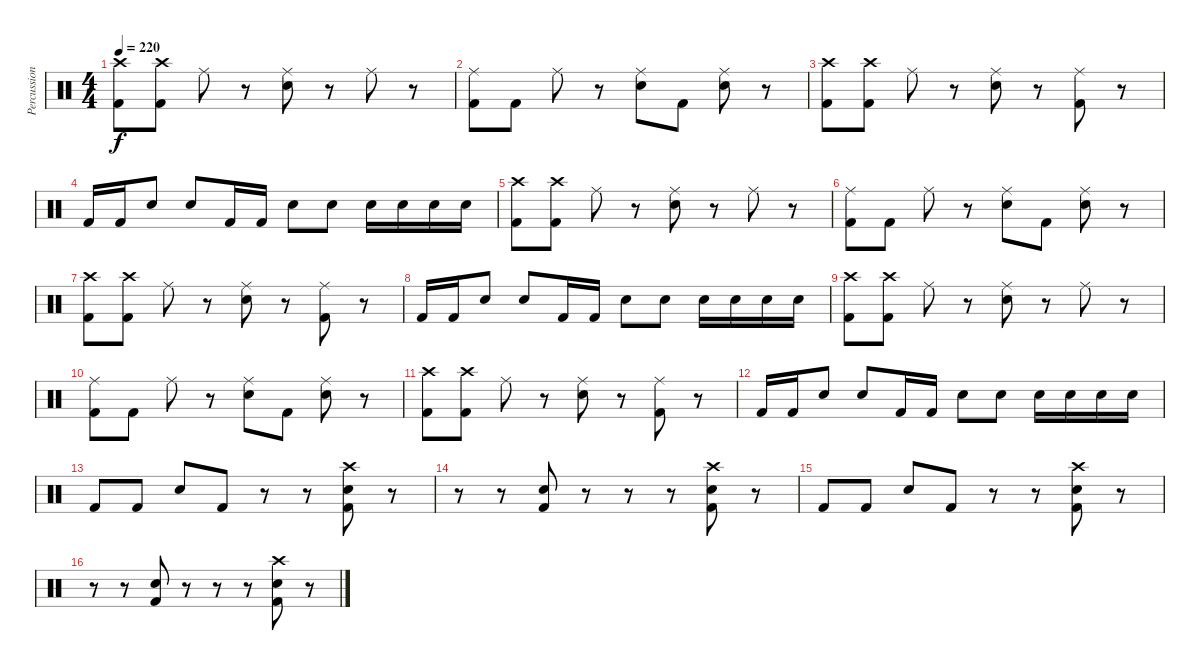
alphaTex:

\track ("Percussion" "Percussion") {instrument percussion}
\staff {score}
\articulation defaults
\ts (4 4)
\tempo 220
\clef neutral
\ks c
("Crash high (hit)" "Kick (hit) 2").8{dy f} ("Crash high (hit)" "Kick (hit) 2").8 "Ride (middle)".8 r.8 ("Ride (middle)" "Electric Snare (hit)").8 r.8 "Ride (middle)".8 r.8 |
("Ride (middle)" "Kick (hit) 2").8 "Kick (hit) 2".8 "Ride (middle)".8 r.8 ("Ride (middle)" "Electric Snare (hit)").8 "Kick (hit) 2".8 ("Ride (middle)" "Electric Snare (hit)").8 r.8 |
("Crash high (hit)" "Kick (hit) 2").8 ("Crash high (hit)" "Kick (hit) 2").8 "Ride (middle)".8 r.8 ("Ride (middle)" "Electric Snare (hit)").8 r.8 ("Ride (middle)" "Kick (hit) 2").8 r.8 |
"Kick (hit) 2".16 "Kick (hit) 2".16 "Electric Snare (hit)".8 "Electric Snare (hit)".8 "Kick (hit) 2".16 "Kick (hit) 2".16 "Electric Snare (hit)".8 "Electric Snare (hit)".8 "Electric Snare (hit)".16 "Electric Snare (hit)".16 "Electric Snare (hit)".16 "Electric Snare (hit)".16 |
("Crash high (hit)" "Kick (hit) 2").8 ("Crash high (hit)" "Kick (hit) 2").8 "Ride (middle)".8 r.8 ("Ride (middle)" "Electric Snare (hit)").8 r.8 "Ride (middle)".8 r.8 |
("Ride (middle)" "Kick (hit) 2").8 "Kick (hit) 2".8 "Ride (middle)".8 r.8 ("Ride (middle)" "Electric Snare (hit)").8 "Kick (hit) 2".8 ("Ride (middle)" "Electric Snare (hit)").8 r.8 |
("Crash high (hit)" "Kick (hit) 2").8 ("Crash high (hit)" "Kick (hit) 2").8 "Ride (middle)".8 r.8 ("Ride (middle)" "Electric Snare (hit)").8 r.8 ("Ride (middle)" "Kick (hit) 2").8 r.8 |
"Kick (hit) 2".16 "Kick (hit) 2".16 "Electric Snare (hit)".8 "Electric Snare (hit)".8 "Kick (hit) 2".16 "Kick (hit) 2".16 "Electric Snare (hit)".8 "Electric Snare (hit)".8 "Electric Snare (hit)".16 "Electric Snare (hit)".16 "Electric Snare (hit)".16 "Electric Snare (hit)".16 |
("Crash high (hit)" "Kick (hit) 2").8 ("Crash high (hit)" "Kick (hit) 2").8 "Ride (middle)".8 r.8 ("Ride (middle)" "Electric Snare (hit)").8 r.8 "Ride (middle)".8 r.8 |
("Ride (middle)" "Kick (hit) 2").8 "Kick (hit) 2".8 "Ride (middle)".8 r.8 ("Ride (middle)" "Electric Snare (hit)").8 "Kick (hit) 2".8 ("Ride (middle)" "Electric Snare (hit)").8 r.8 |
("Crash high (hit)" "Kick (hit) 2").8 ("Crash high (hit)" "Kick (hit) 2").8 "Ride (middle)".8 r.8 ("Ride (middle)" "Electric Snare (hit)").8 r.8 ("Ride (middle)" "Kick (hit) 2").8 r.8 |
"Kick (hit) 2".16 "Kick (hit) 2".16 "Electric Snare (hit)".8 "Electric Snare (hit)".8 "Kick (hit) 2".16 "Kick (hit) 2".16 "Electric Snare (hit)".8 "Electric Snare (hit)".8 "Electric Snare (hit)".16 "Electric Snare (hit)".16 "Electric Snare (hit)".16 "Electric Snare (hit)".16 |
"Kick (hit) 2".8 "Kick (hit) 2".8 "Electric Snare (hit)".8 "Kick (hit) 2".8 r.8 r.8 ("Crash high (hit)" "Electric Snare (hit)" "Kick (hit) 2").8 r.8 |
r.8 r.8 ("Electric Snare (hit)" "Kick (hit) 2").8 r.8 r.8 r.8 ("Crash high (hit)" "Electric Snare (hit)" "Kick (hit) 2").8 r.8 |
"Kick (hit) 2".8 "Kick (hit) 2".8 "Electric Snare (hit)".8 "Kick (hit) 2".8 r.8 r.8 ("Crash high (hit)" "Electric Snare (hit)" "Kick (hit) 2").8 r.8 |
r.8 r.8 ("Electric Snare (hit)" "Kick (hit) 2").8 r.8 r.8 r.8 ("Crash high (hit)" "Electric Snare (hit)" "Kick (hit) 2").8 r.8
